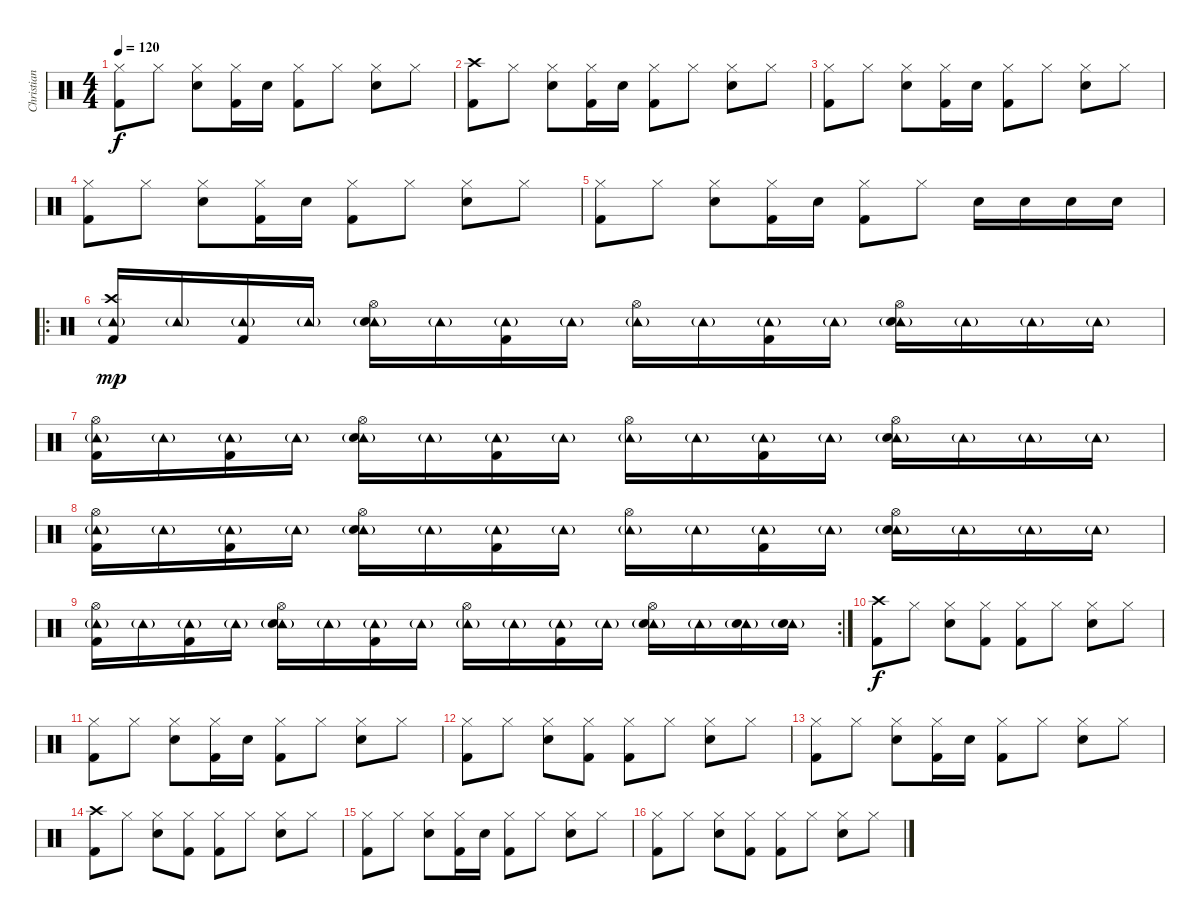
\track ("Christian" "Christian") {instrument percussion}
\staff {score}
\articulation defaults
\ts (4 4)
\tempo 120
\clef neutral
\ks c
("Hi-Hat (closed)" "Kick (hit) 2").8{dy f} "Hi-Hat (closed)".8 ("Hi-Hat (closed)" "Snare (hit) 2").8 ("Hi-Hat (closed)" "Kick (hit) 2").16 "Snare (hit) 2".16 ("Hi-Hat (closed)" "Kick (hit) 2").8 "Hi-Hat (closed)".8 ("Hi-Hat (closed)" "Snare (hit) 2").8 "Hi-Hat (closed)".8 |
("Crash high (hit)" "Kick (hit) 2").8 "Hi-Hat (closed)".8 ("Hi-Hat (closed)" "Snare (hit) 2").8 ("Hi-Hat (closed)" "Kick (hit) 2").16 "Snare (hit) 2".16 ("Hi-Hat (closed)" "Kick (hit) 2").8 "Hi-Hat (closed)".8 ("Hi-Hat (closed)" "Snare (hit) 2").8 "Hi-Hat (closed)".8 |
("Hi-Hat (closed)" "Kick (hit) 2").8 "Hi-Hat (closed)".8 ("Hi-Hat (closed)" "Snare (hit) 2").8 ("Hi-Hat (closed)" "Kick (hit) 2").16 "Snare (hit) 2".16 ("Hi-Hat (closed)" "Kick (hit) 2").8 "Hi-Hat (closed)".8 ("Hi-Hat (closed)" "Snare (hit) 2").8 "Hi-Hat (closed)".8 |
("Hi-Hat (closed)" "Kick (hit) 2").8 "Hi-Hat (closed)".8 ("Hi-Hat (closed)" "Snare (hit) 2").8 ("Hi-Hat (closed)" "Kick (hit) 2").16 "Snare (hit) 2".16 ("Hi-Hat (closed)" "Kick (hit) 2").8 "Hi-Hat (closed)".8 ("Hi-Hat (closed)" "Snare (hit) 2").8 "Hi-Hat (closed)".8 |
("Hi-Hat (closed)" "Kick (hit) 2").8 "Hi-Hat (closed)".8 ("Hi-Hat (closed)" "Snare (hit) 2").8 ("Hi-Hat (closed)" "Kick (hit) 2").16 "Snare (hit) 2".16 ("Hi-Hat (closed)" "Kick (hit) 2").8 "Hi-Hat (closed)".8 "Snare (hit) 2".16 "Snare (hit) 2".16 "Snare (hit) 2".16 "Snare (hit) 2".16 |
\ro
("Crash high (hit)" "Tambourine (hit)"{g} "Kick (hit) 2").16{dy mp} "Tambourine (hit)"{g}.16 ("Tambourine (hit)"{g} "Kick (hit) 2").16 "Tambourine (hit)"{g}.16 ("Tambourine (hit)"{g} "Hi-Hat (open)" "Snare (hit) 2").16 "Tambourine (hit)"{g}.16 ("Tambourine (hit)"{g} "Kick (hit) 2").16 "Tambourine (hit)"{g}.16 ("Tambourine (hit)"{g} "Hi-Hat (open)").16 "Tambourine (hit)"{g}.16 ("Tambourine (hit)"{g} "Kick (hit) 2").16 "Tambourine (hit)"{g}.16 ("Tambourine (hit)"{g} "Hi-Hat (open)" "Snare (hit) 2").16 "Tambourine (hit)"{g}.16 "Tambourine (hit)"{g}.16 "Tambourine (hit)"{g}.16 |
("Tambourine (hit)"{g} "Hi-Hat (open)" "Kick (hit) 2").16 "Tambourine (hit)"{g}.16 ("Tambourine (hit)"{g} "Kick (hit) 2").16 "Tambourine (hit)"{g}.16 ("Tambourine (hit)"{g} "Hi-Hat (open)" "Snare (hit) 2").16 "Tambourine (hit)"{g}.16 ("Tambourine (hit)"{g} "Kick (hit) 2").16 "Tambourine (hit)"{g}.16 ("Tambourine (hit)"{g} "Hi-Hat (open)").16 "Tambourine (hit)"{g}.16 ("Tambourine (hit)"{g} "Kick (hit) 2").16 "Tambourine (hit)"{g}.16 ("Tambourine (hit)"{g} "Hi-Hat (open)" "Snare (hit) 2").16 "Tambourine (hit)"{g}.16 "Tambourine (hit)"{g}.16 "Tambourine (hit)"{g}.16 |
("Tambourine (hit)"{g} "Hi-Hat (open)" "Kick (hit) 2").16 "Tambourine (hit)"{g}.16 ("Tambourine (hit)"{g} "Kick (hit) 2").16 "Tambourine (hit)"{g}.16 ("Tambourine (hit)"{g} "Hi-Hat (open)" "Snare (hit) 2").16 "Tambourine (hit)"{g}.16 ("Tambourine (hit)"{g} "Kick (hit) 2").16 "Tambourine (hit)"{g}.16 ("Tambourine (hit)"{g} "Hi-Hat (open)").16 "Tambourine (hit)"{g}.16 ("Tambourine (hit)"{g} "Kick (hit) 2").16 "Tambourine (hit)"{g}.16 ("Tambourine (hit)"{g} "Hi-Hat (open)" "Snare (hit) 2").16 "Tambourine (hit)"{g}.16 "Tambourine (hit)"{g}.16 "Tambourine (hit)"{g}.16 |
\rc 2
("Tambourine (hit)"{g} "Hi-Hat (open)" "Kick (hit) 2").16 "Tambourine (hit)"{g}.16 ("Tambourine (hit)"{g} "Kick (hit) 2").16 "Tambourine (hit)"{g}.16 ("Tambourine (hit)"{g} "Hi-Hat (open)" "Snare (hit) 2").16 "Tambourine (hit)"{g}.16 ("Tambourine (hit)"{g} "Kick (hit) 2").16 "Tambourine (hit)"{g}.16 ("Tambourine (hit)"{g} "Hi-Hat (open)").16 "Tambourine (hit)"{g}.16 ("Tambourine (hit)"{g} "Kick (hit) 2").16 "Tambourine (hit)"{g}.16 ("Tambourine (hit)"{g} "Hi-Hat (open)" "Snare (hit) 2").16 "Tambourine (hit)"{g}.16 ("Tambourine (hit)"{g} "Snare (hit) 2").16 ("Tambourine (hit)"{g} "Snare (hit) 2").16 |
("Crash high (hit)" "Kick (hit) 2").8{dy f} "Hi-Hat (closed)".8 ("Hi-Hat (closed)" "Snare (hit) 2").8 ("Hi-Hat (closed)" "Kick (hit) 2").8 ("Hi-Hat (closed)" "Kick (hit) 2").8 "Hi-Hat (closed)".8 ("Hi-Hat (closed)" "Snare (hit) 2").8 "Hi-Hat (closed)".8 |
("Hi-Hat (closed)" "Kick (hit) 2").8 "Hi-Hat (closed)".8 ("Hi-Hat (closed)" "Snare (hit) 2").8 ("Hi-Hat (closed)" "Kick (hit) 2").16 "Snare (hit) 2".16 ("Hi-Hat (closed)" "Kick (hit) 2").8 "Hi-Hat (closed)".8 ("Hi-Hat (closed)" "Snare (hit) 2").8 "Hi-Hat (closed)".8 |
("Hi-Hat (closed)" "Kick (hit) 2").8 "Hi-Hat (closed)".8 ("Hi-Hat (closed)" "Snare (hit) 2").8 ("Hi-Hat (closed)" "Kick (hit) 2").8 ("Hi-Hat (closed)" "Kick (hit) 2").8 "Hi-Hat (closed)".8 ("Hi-Hat (closed)" "Snare (hit) 2").8 "Hi-Hat (closed)".8 |
("Hi-Hat (closed)" "Kick (hit) 2").8 "Hi-Hat (closed)".8 ("Hi-Hat (closed)" "Snare (hit) 2").8 ("Hi-Hat (closed)" "Kick (hit) 2").16 "Snare (hit) 2".16 ("Hi-Hat (closed)" "Kick (hit) 2").8 "Hi-Hat (closed)".8 ("Hi-Hat (closed)" "Snare (hit) 2").8 "Hi-Hat (closed)".8 |
("Crash high (hit)" "Kick (hit) 2").8 "Hi-Hat (closed)".8 ("Hi-Hat (closed)" "Snare (hit) 2").8 ("Hi-Hat (closed)" "Kick (hit) 2").8 ("Hi-Hat (closed)" "Kick (hit) 2").8 "Hi-Hat (closed)".8 ("Hi-Hat (closed)" "Snare (hit) 2").8 "Hi-Hat (closed)".8 |
("Hi-Hat (closed)" "Kick (hit) 2").8 "Hi-Hat (closed)".8 ("Hi-Hat (closed)" "Snare (hit) 2").8 ("Hi-Hat (closed)" "Kick (hit) 2").16 "Snare (hit) 2".16 ("Hi-Hat (closed)" "Kick (hit) 2").8 "Hi-Hat (closed)".8 ("Hi-Hat (closed)" "Snare (hit) 2").8 "Hi-Hat (closed)".8 |
("Hi-Hat (closed)" "Kick (hit) 2").8 "Hi-Hat (closed)".8 ("Hi-Hat (closed)" "Snare (hit) 2").8 ("Hi-Hat (closed)" "Kick (hit) 2").8 ("Hi-Hat (closed)" "Kick (hit) 2").8 "Hi-Hat (closed)".8 ("Hi-Hat (closed)" "Snare (hit) 2").8 "Hi-Hat (closed)".8
